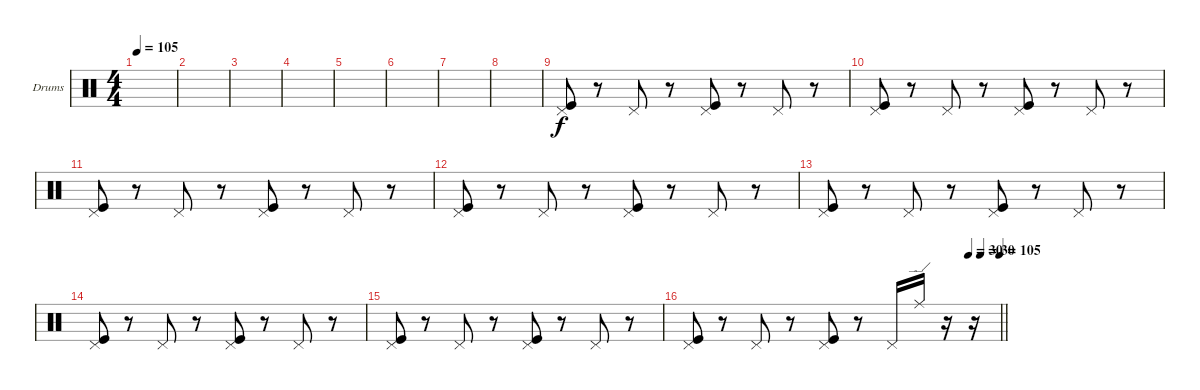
\defaultSystemsLayout 4
\bracketExtendMode groupsimilarinstruments
\firstSystemTrackNameOrientation horizontal
\otherSystemsTrackNameOrientation horizontal
\track ("Drumkit" "Drums") {instrument percussion}
\staff {score}
\articulation defaults
\ts (4 4)
\tempo 105
\clef neutral
\scale
0.472222
\ks c
|
\scale
0.263889 |
\scale
0.263889 |
\scale
0.333333 |
\scale
0.333333 |
\scale
0.333333 |
\scale
0.333333 |
\scale
0.333333 |
\scale
0.333333 ("Pedal Hi-Hat (hit)" "Kick (hit)").8 r.8 "Pedal Hi-Hat (hit)".8 r.8 ("Pedal Hi-Hat (hit)" "Kick (hit)").8 r.8 "Pedal Hi-Hat (hit)".8 r.8 |
\scale
0.333333 ("Pedal Hi-Hat (hit)" "Kick (hit)").8 r.8 "Pedal Hi-Hat (hit)".8 r.8 ("Pedal Hi-Hat (hit)" "Kick (hit)").8 r.8 "Pedal Hi-Hat (hit)".8 r.8 |
\scale
0.333333 ("Pedal Hi-Hat (hit)" "Kick (hit)").8 r.8 "Pedal Hi-Hat (hit)".8 r.8 ("Pedal Hi-Hat (hit)" "Kick (hit)").8 r.8 "Pedal Hi-Hat (hit)".8 r.8 |
\scale
0.333333 ("Pedal Hi-Hat (hit)" "Kick (hit)").8 r.8 "Pedal Hi-Hat (hit)".8 r.8 ("Pedal Hi-Hat (hit)" "Kick (hit)").8 r.8 "Pedal Hi-Hat (hit)".8 r.8 |
\scale
0.333333 ("Pedal Hi-Hat (hit)" "Kick (hit)").8 r.8 "Pedal Hi-Hat (hit)".8 r.8 ("Pedal Hi-Hat (hit)" "Kick (hit)").8 r.8 "Pedal Hi-Hat (hit)".8 r.8 |
\scale
0.333333 ("Pedal Hi-Hat (hit)" "Kick (hit)").8 r.8 "Pedal Hi-Hat (hit)".8 r.8 ("Pedal Hi-Hat (hit)" "Kick (hit)").8 r.8 "Pedal Hi-Hat (hit)".8 r.8 |
\scale
0.333333 ("Pedal Hi-Hat (hit)" "Kick (hit)").8 r.8 "Pedal Hi-Hat (hit)".8 r.8 ("Pedal Hi-Hat (hit)" "Kick (hit)").8 r.8 "Pedal Hi-Hat (hit)".8 r.8 |
\tempo (30 0.898678)
\tempo (30 0.9375)
\tempo (105 1)
\scale
0.333333
\barLineRight lightlight
("Pedal Hi-Hat (hit)" "Kick (hit)").8 r.8 "Pedal Hi-Hat (hit)".8 r.8 ("Pedal Hi-Hat (hit)" "Kick (hit)").8 r.8 "Pedal Hi-Hat (hit)".16 "Ride (edge)".16 r.16 r.16
